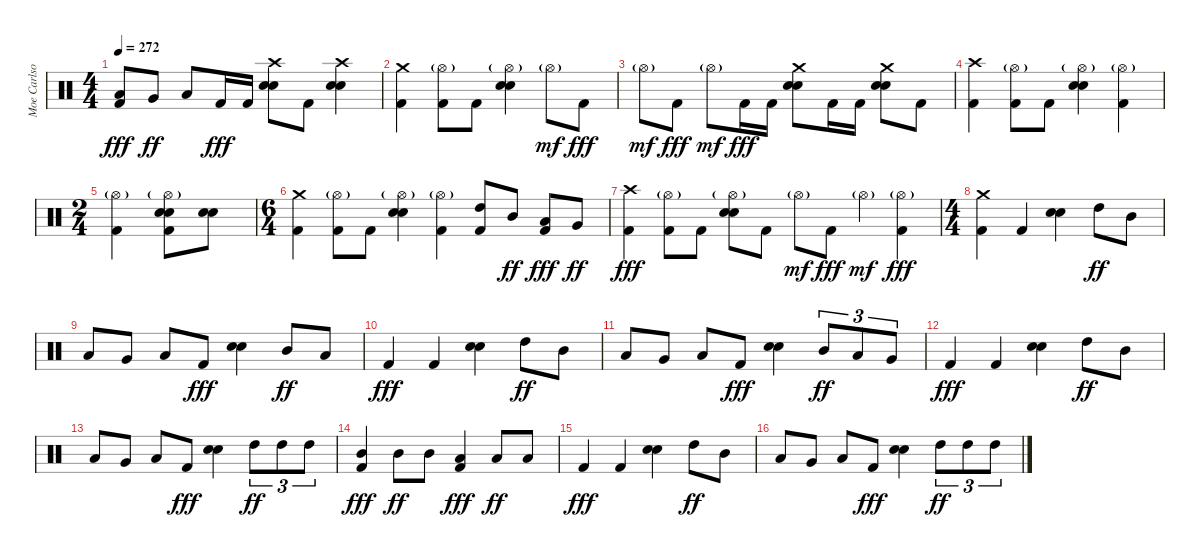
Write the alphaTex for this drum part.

\track ("Moe Carlson" "Moe Carlso") {instrument percussion}
\staff {score}
\articulation defaults
\ts (4 4)
\tempo 272
\clef neutral
\ks c
("Low Tom (hit)" "Kick (hit) 2").8{dy fff} "Very Low Tom (hit)".8{dy ff} "Low Floor Tom (hit)".8 "Kick (hit) 2".16{dy fff} "Kick (hit) 2".16 ("Crash high (hit)" "Snare (hit) 2" "Electric Snare (hit)").8 "Kick (hit) 2".8 ("Crash high (hit)" "Snare (hit) 2" "Electric Snare (hit)").4 |
("Crash medium (hit)" "Kick (hit) 2").4 ("Hi-Hat (open)"{g} "Kick (hit) 2").8 "Kick (hit) 2".8 ("Hi-Hat (open)"{g} "Snare (hit) 2" "Electric Snare (hit)").4 "Hi-Hat (open)"{g}.8{dy mf} "Kick (hit) 2".8{dy fff} |
"Hi-Hat (open)"{g}.8{dy mf} "Kick (hit) 2".8{dy fff} "Hi-Hat (open)"{g}.8{dy mf} "Kick (hit) 2".16{dy fff} "Kick (hit) 2".16 ("Crash medium (hit)" "Snare (hit) 2" "Electric Snare (hit)").8 "Kick (hit) 2".16 "Kick (hit) 2".16 ("Crash medium (hit)" "Snare (hit) 2" "Electric Snare (hit)").8 "Kick (hit) 2".8 |
("Crash high (hit)" "Kick (hit) 2").4 ("Hi-Hat (open)"{g} "Kick (hit) 2").8 "Kick (hit) 2".8 ("Hi-Hat (open)"{g} "Snare (hit) 2" "Electric Snare (hit)").4 ("Hi-Hat (open)"{g} "Kick (hit) 2").4 |
\ts (2 4)
("Hi-Hat (open)"{g} "Kick (hit) 2").4 ("Hi-Hat (open)"{g} "Snare (hit) 2" "Electric Snare (hit)" "Kick (hit) 2").8 ("Snare (hit) 2" "Electric Snare (hit)").8 |
\ts (6 4)
("Crash medium (hit)" "Kick (hit) 2").4 ("Hi-Hat (open)"{g} "Kick (hit) 2").8 "Kick (hit) 2".8 ("Hi-Hat (open)"{g} "Snare (hit) 2" "Electric Snare (hit)").4 ("Hi-Hat (open)"{g} "Kick (hit) 2").4 ("High Tom (hit)" "Kick (hit) 2").8 "Mid Tom (hit)".8{dy ff} ("Low Tom (hit)" "Kick (hit) 2").8{dy fff} "Very Low Tom (hit)".8{dy ff} |
("Crash high (hit)" "Kick (hit) 2").4{dy fff} ("Hi-Hat (open)"{g} "Kick (hit) 2").8 "Kick (hit) 2".8 ("Hi-Hat (open)"{g} "Snare (hit) 2" "Electric Snare (hit)").8 "Kick (hit) 2".8 "Hi-Hat (open)"{g}.8{dy mf} "Kick (hit) 2".8{dy fff} "Hi-Hat (open)"{g}.4{dy mf} ("Hi-Hat (open)"{g} "Kick (hit) 2").4{dy fff} |
\ts (4 4)
("Crash medium (hit)" "Kick (hit) 2").4 "Kick (hit) 2".4 ("Snare (hit) 2" "Electric Snare (hit)").4 "High Tom (hit)".8{dy ff} "Mid Tom (hit)".8 |
"Low Tom (hit)".8 "Very Low Tom (hit)".8 "Low Floor Tom (hit)".8 "Kick (hit) 2".8{dy fff} ("Snare (hit) 2" "Electric Snare (hit)").4 "Mid Tom (hit)".8{dy ff} "Low Tom (hit)".8 |
"Kick (hit) 2".4{dy fff} "Kick (hit) 2".4 ("Snare (hit) 2" "Electric Snare (hit)").4 "High Tom (hit)".8{dy ff} "Mid Tom (hit)".8 |
"Low Tom (hit)".8 "Very Low Tom (hit)".8 "Low Floor Tom (hit)".8 "Kick (hit) 2".8{dy fff} ("Snare (hit) 2" "Electric Snare (hit)").4 "Mid Tom (hit)".8{tu (3 2) dy ff} "Low Tom (hit)".8{tu (3 2)} "Very Low Tom (hit)".8{tu (3 2)} |
"Kick (hit) 2".4{dy fff} "Kick (hit) 2".4 ("Snare (hit) 2" "Electric Snare (hit)").4 "High Tom (hit)".8{dy ff} "Mid Tom (hit)".8 |
"Low Tom (hit)".8 "Very Low Tom (hit)".8 "Low Floor Tom (hit)".8 "Kick (hit) 2".8{dy fff} ("Snare (hit) 2" "Electric Snare (hit)").4 "High Tom (hit)".8{tu (3 2) dy ff} "High Tom (hit)".8{tu (3 2)} "High Tom (hit)".8{tu (3 2)} |
("Mid Tom (hit)" "Kick (hit) 2").4{dy fff} "Mid Tom (hit)".8{dy ff} "Mid Tom (hit)".8 ("Low Tom (hit)" "Kick (hit) 2").4{dy fff} "Low Tom (hit)".8{dy ff} "Low Tom (hit)".8 |
"Kick (hit) 2".4{dy fff} "Kick (hit) 2".4 ("Snare (hit) 2" "Electric Snare (hit)").4 "High Tom (hit)".8{dy ff} "Mid Tom (hit)".8 |
"Low Tom (hit)".8 "Very Low Tom (hit)".8 "Low Floor Tom (hit)".8 "Kick (hit) 2".8{dy fff} ("Snare (hit) 2" "Electric Snare (hit)").4 "High Tom (hit)".8{tu (3 2) dy ff} "High Tom (hit)".8{tu (3 2)} "High Tom (hit)".8{tu (3 2)}
